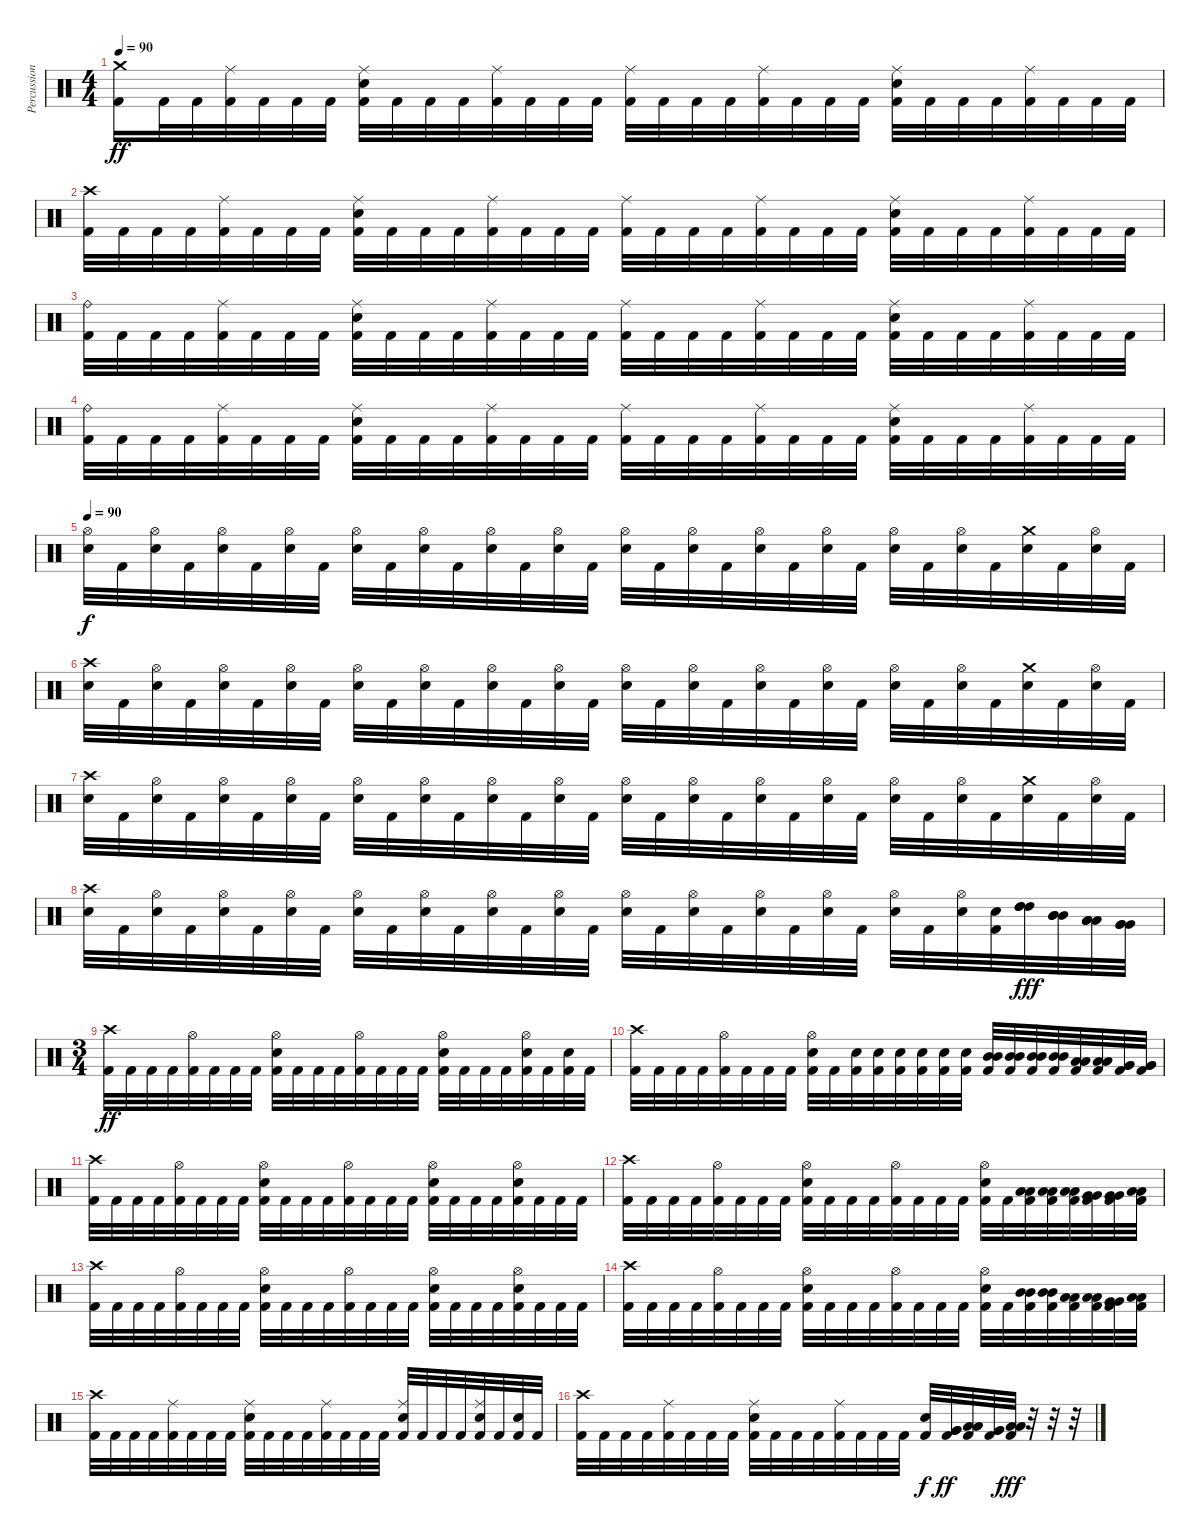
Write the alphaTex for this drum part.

\track ("Percussion" "Percussion") {instrument percussion}
\staff {score}
\articulation defaults
\ts (4 4)
\tempo 90
\clef neutral
\ks c
("Crash medium (hit)" "Kick (hit) 2").16{dy ff} "Kick (hit) 2".32 "Kick (hit) 2".32 ("Ride (middle)" "Kick (hit) 2").32 "Kick (hit) 2".32 "Kick (hit) 2".32 "Kick (hit) 2".32 ("Ride (middle)" "Electric Snare (hit)" "Kick (hit) 2").32 "Kick (hit) 2".32 "Kick (hit) 2".32 "Kick (hit) 2".32 ("Ride (middle)" "Kick (hit) 2").32 "Kick (hit) 2".32 "Kick (hit) 2".32 "Kick (hit) 2".32 ("Ride (middle)" "Kick (hit) 2").32 "Kick (hit) 2".32 "Kick (hit) 2".32 "Kick (hit) 2".32 ("Ride (middle)" "Kick (hit) 2").32 "Kick (hit) 2".32 "Kick (hit) 2".32 "Kick (hit) 2".32 ("Ride (middle)" "Electric Snare (hit)" "Kick (hit) 2").32 "Kick (hit) 2".32 "Kick (hit) 2".32 "Kick (hit) 2".32 ("Ride (middle)" "Kick (hit) 2").32 "Kick (hit) 2".32 "Kick (hit) 2".32 "Kick (hit) 2".32 |
("Crash high (hit)" "Kick (hit) 2").32 "Kick (hit) 2".32 "Kick (hit) 2".32 "Kick (hit) 2".32 ("Ride (middle)" "Kick (hit) 2").32 "Kick (hit) 2".32 "Kick (hit) 2".32 "Kick (hit) 2".32 ("Ride (middle)" "Electric Snare (hit)" "Kick (hit) 2").32 "Kick (hit) 2".32 "Kick (hit) 2".32 "Kick (hit) 2".32 ("Ride (middle)" "Kick (hit) 2").32 "Kick (hit) 2".32 "Kick (hit) 2".32 "Kick (hit) 2".32 ("Ride (middle)" "Kick (hit) 2").32 "Kick (hit) 2".32 "Kick (hit) 2".32 "Kick (hit) 2".32 ("Ride (middle)" "Kick (hit) 2").32 "Kick (hit) 2".32 "Kick (hit) 2".32 "Kick (hit) 2".32 ("Ride (middle)" "Electric Snare (hit)" "Kick (hit) 2").32 "Kick (hit) 2".32 "Kick (hit) 2".32 "Kick (hit) 2".32 ("Ride (middle)" "Kick (hit) 2").32 "Kick (hit) 2".32 "Kick (hit) 2".32 "Kick (hit) 2".32 |
("Ride (bell)" "Kick (hit) 2").32 "Kick (hit) 2".32 "Kick (hit) 2".32 "Kick (hit) 2".32 ("Ride (middle)" "Kick (hit) 2").32 "Kick (hit) 2".32 "Kick (hit) 2".32 "Kick (hit) 2".32 ("Ride (middle)" "Electric Snare (hit)" "Kick (hit) 2").32 "Kick (hit) 2".32 "Kick (hit) 2".32 "Kick (hit) 2".32 ("Ride (middle)" "Kick (hit) 2").32 "Kick (hit) 2".32 "Kick (hit) 2".32 "Kick (hit) 2".32 ("Ride (middle)" "Kick (hit) 2").32 "Kick (hit) 2".32 "Kick (hit) 2".32 "Kick (hit) 2".32 ("Ride (middle)" "Kick (hit) 2").32 "Kick (hit) 2".32 "Kick (hit) 2".32 "Kick (hit) 2".32 ("Ride (middle)" "Electric Snare (hit)" "Kick (hit) 2").32 "Kick (hit) 2".32 "Kick (hit) 2".32 "Kick (hit) 2".32 ("Ride (middle)" "Kick (hit) 2").32 "Kick (hit) 2".32 "Kick (hit) 2".32 "Kick (hit) 2".32 |
("Ride (bell)" "Kick (hit) 2").32 "Kick (hit) 2".32 "Kick (hit) 2".32 "Kick (hit) 2".32 ("Ride (middle)" "Kick (hit) 2").32 "Kick (hit) 2".32 "Kick (hit) 2".32 "Kick (hit) 2".32 ("Ride (middle)" "Electric Snare (hit)" "Kick (hit) 2").32 "Kick (hit) 2".32 "Kick (hit) 2".32 "Kick (hit) 2".32 ("Ride (middle)" "Kick (hit) 2").32 "Kick (hit) 2".32 "Kick (hit) 2".32 "Kick (hit) 2".32 ("Ride (middle)" "Kick (hit) 2").32 "Kick (hit) 2".32 "Kick (hit) 2".32 "Kick (hit) 2".32 ("Ride (middle)" "Kick (hit) 2").32 "Kick (hit) 2".32 "Kick (hit) 2".32 "Kick (hit) 2".32 ("Ride (middle)" "Electric Snare (hit)" "Kick (hit) 2").32 "Kick (hit) 2".32 "Kick (hit) 2".32 "Kick (hit) 2".32 ("Ride (middle)" "Kick (hit) 2").32 "Kick (hit) 2".32 "Kick (hit) 2".32 "Kick (hit) 2".32 |
\tempo 90
("Hi-Hat (open)" "Electric Snare (hit)").32{dy f} "Kick (hit) 2".32 ("Hi-Hat (open)" "Electric Snare (hit)").32 "Kick (hit) 2".32 ("Hi-Hat (open)" "Electric Snare (hit)").32 "Kick (hit) 2".32 ("Hi-Hat (open)" "Electric Snare (hit)").32 "Kick (hit) 2".32 ("Hi-Hat (open)" "Electric Snare (hit)").32 "Kick (hit) 2".32 ("Hi-Hat (open)" "Electric Snare (hit)").32 "Kick (hit) 2".32 ("Hi-Hat (open)" "Electric Snare (hit)").32 "Kick (hit) 2".32 ("Hi-Hat (open)" "Electric Snare (hit)").32 "Kick (hit) 2".32 ("Hi-Hat (open)" "Electric Snare (hit)").32 "Kick (hit) 2".32 ("Hi-Hat (open)" "Electric Snare (hit)").32 "Kick (hit) 2".32 ("Hi-Hat (open)" "Electric Snare (hit)").32 "Kick (hit) 2".32 ("Hi-Hat (open)" "Electric Snare (hit)").32 "Kick (hit) 2".32 ("Hi-Hat (open)" "Electric Snare (hit)").32 "Kick (hit) 2".32 ("Hi-Hat (open)" "Electric Snare (hit)").32 "Kick (hit) 2".32 ("Crash medium (hit)" "Electric Snare (hit)").32 "Kick (hit) 2".32 ("Hi-Hat (open)" "Electric Snare (hit)").32 "Kick (hit) 2".32 |
("Crash high (hit)" "Electric Snare (hit)").32 "Kick (hit) 2".32 ("Hi-Hat (open)" "Electric Snare (hit)").32 "Kick (hit) 2".32 ("Hi-Hat (open)" "Electric Snare (hit)").32 "Kick (hit) 2".32 ("Hi-Hat (open)" "Electric Snare (hit)").32 "Kick (hit) 2".32 ("Hi-Hat (open)" "Electric Snare (hit)").32 "Kick (hit) 2".32 ("Hi-Hat (open)" "Electric Snare (hit)").32 "Kick (hit) 2".32 ("Hi-Hat (open)" "Electric Snare (hit)").32 "Kick (hit) 2".32 ("Hi-Hat (open)" "Electric Snare (hit)").32 "Kick (hit) 2".32 ("Hi-Hat (open)" "Electric Snare (hit)").32 "Kick (hit) 2".32 ("Hi-Hat (open)" "Electric Snare (hit)").32 "Kick (hit) 2".32 ("Hi-Hat (open)" "Electric Snare (hit)").32 "Kick (hit) 2".32 ("Hi-Hat (open)" "Electric Snare (hit)").32 "Kick (hit) 2".32 ("Hi-Hat (open)" "Electric Snare (hit)").32 "Kick (hit) 2".32 ("Hi-Hat (open)" "Electric Snare (hit)").32 "Kick (hit) 2".32 ("Crash medium (hit)" "Electric Snare (hit)").32 "Kick (hit) 2".32 ("Hi-Hat (open)" "Electric Snare (hit)").32 "Kick (hit) 2".32 |
("Crash high (hit)" "Electric Snare (hit)").32 "Kick (hit) 2".32 ("Hi-Hat (open)" "Electric Snare (hit)").32 "Kick (hit) 2".32 ("Hi-Hat (open)" "Electric Snare (hit)").32 "Kick (hit) 2".32 ("Hi-Hat (open)" "Electric Snare (hit)").32 "Kick (hit) 2".32 ("Hi-Hat (open)" "Electric Snare (hit)").32 "Kick (hit) 2".32 ("Hi-Hat (open)" "Electric Snare (hit)").32 "Kick (hit) 2".32 ("Hi-Hat (open)" "Electric Snare (hit)").32 "Kick (hit) 2".32 ("Hi-Hat (open)" "Electric Snare (hit)").32 "Kick (hit) 2".32 ("Hi-Hat (open)" "Electric Snare (hit)").32 "Kick (hit) 2".32 ("Hi-Hat (open)" "Electric Snare (hit)").32 "Kick (hit) 2".32 ("Hi-Hat (open)" "Electric Snare (hit)").32 "Kick (hit) 2".32 ("Hi-Hat (open)" "Electric Snare (hit)").32 "Kick (hit) 2".32 ("Hi-Hat (open)" "Electric Snare (hit)").32 "Kick (hit) 2".32 ("Hi-Hat (open)" "Electric Snare (hit)").32 "Kick (hit) 2".32 ("Crash medium (hit)" "Electric Snare (hit)").32 "Kick (hit) 2".32 ("Hi-Hat (open)" "Electric Snare (hit)").32 "Kick (hit) 2".32 |
("Crash high (hit)" "Electric Snare (hit)").32 "Kick (hit) 2".32 ("Hi-Hat (open)" "Electric Snare (hit)").32 "Kick (hit) 2".32 ("Hi-Hat (open)" "Electric Snare (hit)").32 "Kick (hit) 2".32 ("Hi-Hat (open)" "Electric Snare (hit)").32 "Kick (hit) 2".32 ("Hi-Hat (open)" "Electric Snare (hit)").32 "Kick (hit) 2".32 ("Hi-Hat (open)" "Electric Snare (hit)").32 "Kick (hit) 2".32 ("Hi-Hat (open)" "Electric Snare (hit)").32 "Kick (hit) 2".32 ("Hi-Hat (open)" "Electric Snare (hit)").32 "Kick (hit) 2".32 ("Hi-Hat (open)" "Electric Snare (hit)").32 "Kick (hit) 2".32 ("Hi-Hat (open)" "Electric Snare (hit)").32 "Kick (hit) 2".32 ("Hi-Hat (open)" "Electric Snare (hit)").32 "Kick (hit) 2".32 ("Hi-Hat (open)" "Electric Snare (hit)").32 "Kick (hit) 2".32 ("Hi-Hat (open)" "Electric Snare (hit)").32 "Kick (hit) 2".32 ("Hi-Hat (open)" "Electric Snare (hit)").32 ("Electric Snare (hit)" "Kick (hit) 2").32 ("High Tom (hit)" "High Tom (hit)" "High Tom (hit)").32{dy fff} ("Mid Tom (hit)" "Mid Tom (hit)" "Mid Tom (hit)").32 ("Low Tom (hit)" "Low Tom (hit)" "Low Tom (hit)").32 ("Very Low Tom (hit)" "Very Low Tom (hit)" "Very Low Tom (hit)").32 |
\ts (3 4)
("Crash high (hit)" "Kick (hit) 2").32{dy ff} "Kick (hit) 2".32 "Kick (hit) 2".32 "Kick (hit) 2".32 ("Hi-Hat (open)" "Kick (hit) 2").32 "Kick (hit) 2".32 "Kick (hit) 2".32 "Kick (hit) 2".32 ("Hi-Hat (open)" "Electric Snare (hit)" "Kick (hit) 2").32 "Kick (hit) 2".32 "Kick (hit) 2".32 "Kick (hit) 2".32 ("Hi-Hat (open)" "Kick (hit) 2").32 "Kick (hit) 2".32 "Kick (hit) 2".32 "Kick (hit) 2".32 ("Hi-Hat (open)" "Electric Snare (hit)" "Kick (hit) 2").32 "Kick (hit) 2".32 "Kick (hit) 2".32 "Kick (hit) 2".32 ("Hi-Hat (open)" "Electric Snare (hit)" "Kick (hit) 2").32 "Kick (hit) 2".32 ("Electric Snare (hit)" "Kick (hit) 2").32 "Kick (hit) 2".32 |
("Crash high (hit)" "Kick (hit) 2").32 "Kick (hit) 2".32 "Kick (hit) 2".32 "Kick (hit) 2".32 ("Hi-Hat (open)" "Kick (hit) 2").32 "Kick (hit) 2".32 "Kick (hit) 2".32 "Kick (hit) 2".32 ("Hi-Hat (open)" "Electric Snare (hit)" "Kick (hit) 2").32 "Kick (hit) 2".32 ("Electric Snare (hit)" "Kick (hit) 2").32 ("Electric Snare (hit)" "Kick (hit) 2").32 ("Electric Snare (hit)" "Kick (hit) 2").32 ("Electric Snare (hit)" "Kick (hit) 2").32 ("Electric Snare (hit)" "Kick (hit) 2").32 ("Electric Snare (hit)" "Kick (hit) 2").32 ("Mid Tom (hit)" "Mid Tom (hit)" "Kick (hit) 2").32 ("Mid Tom (hit)" "Mid Tom (hit)" "Kick (hit) 2").32 ("Mid Tom (hit)" "Mid Tom (hit)" "Kick (hit) 2").32 ("Mid Tom (hit)" "Mid Tom (hit)" "Kick (hit) 2").32 ("Low Tom (hit)" "Low Tom (hit)" "Kick (hit) 2").32 ("Low Tom (hit)" "Low Tom (hit)" "Kick (hit) 2").32 ("Very Low Tom (hit)" "Very Low Tom (hit)" "Kick (hit) 2").32 ("Very Low Tom (hit)" "Very Low Tom (hit)" "Kick (hit) 2").32 |
("Crash high (hit)" "Kick (hit) 2").32 "Kick (hit) 2".32 "Kick (hit) 2".32 "Kick (hit) 2".32 ("Hi-Hat (open)" "Kick (hit) 2").32 "Kick (hit) 2".32 "Kick (hit) 2".32 "Kick (hit) 2".32 ("Hi-Hat (open)" "Electric Snare (hit)" "Kick (hit) 2").32 "Kick (hit) 2".32 "Kick (hit) 2".32 "Kick (hit) 2".32 ("Hi-Hat (open)" "Kick (hit) 2").32 "Kick (hit) 2".32 "Kick (hit) 2".32 "Kick (hit) 2".32 ("Hi-Hat (open)" "Electric Snare (hit)" "Kick (hit) 2").32 "Kick (hit) 2".32 "Kick (hit) 2".32 "Kick (hit) 2".32 ("Hi-Hat (open)" "Electric Snare (hit)" "Kick (hit) 2").32 "Kick (hit) 2".32 "Kick (hit) 2".32 "Kick (hit) 2".32 |
("Crash high (hit)" "Kick (hit) 2").32 "Kick (hit) 2".32 "Kick (hit) 2".32 "Kick (hit) 2".32 ("Hi-Hat (open)" "Kick (hit) 2").32 "Kick (hit) 2".32 "Kick (hit) 2".32 "Kick (hit) 2".32 ("Hi-Hat (open)" "Electric Snare (hit)" "Kick (hit) 2").32 "Kick (hit) 2".32 "Kick (hit) 2".32 "Kick (hit) 2".32 ("Hi-Hat (open)" "Kick (hit) 2").32 "Kick (hit) 2".32 "Kick (hit) 2".32 "Kick (hit) 2".32 ("Hi-Hat (open)" "Electric Snare (hit)" "Kick (hit) 2").32 "Kick (hit) 2".32 ("Low Tom (hit)" "Low Tom (hit)" "Kick (hit) 2").32 ("Low Tom (hit)" "Low Tom (hit)" "Kick (hit) 2").32 ("Low Tom (hit)" "Low Tom (hit)" "Kick (hit) 2").32 ("Very Low Tom (hit)" "Very Low Tom (hit)" "Kick (hit) 2").32 ("Very Low Tom (hit)" "Very Low Tom (hit)" "Kick (hit) 2").32 ("Low Floor Tom (hit)" "Low Floor Tom (hit)" "Kick (hit) 2").32 |
("Crash high (hit)" "Kick (hit) 2").32 "Kick (hit) 2".32 "Kick (hit) 2".32 "Kick (hit) 2".32 ("Hi-Hat (open)" "Kick (hit) 2").32 "Kick (hit) 2".32 "Kick (hit) 2".32 "Kick (hit) 2".32 ("Hi-Hat (open)" "Electric Snare (hit)" "Kick (hit) 2").32 "Kick (hit) 2".32 "Kick (hit) 2".32 "Kick (hit) 2".32 ("Hi-Hat (open)" "Kick (hit) 2").32 "Kick (hit) 2".32 "Kick (hit) 2".32 "Kick (hit) 2".32 ("Hi-Hat (open)" "Electric Snare (hit)" "Kick (hit) 2").32 "Kick (hit) 2".32 "Kick (hit) 2".32 "Kick (hit) 2".32 ("Hi-Hat (open)" "Electric Snare (hit)" "Kick (hit) 2").32 "Kick (hit) 2".32 "Kick (hit) 2".32 "Kick (hit) 2".32 |
("Crash high (hit)" "Kick (hit) 2").32 "Kick (hit) 2".32 "Kick (hit) 2".32 "Kick (hit) 2".32 ("Hi-Hat (open)" "Kick (hit) 2").32 "Kick (hit) 2".32 "Kick (hit) 2".32 "Kick (hit) 2".32 ("Hi-Hat (open)" "Electric Snare (hit)" "Kick (hit) 2").32 "Kick (hit) 2".32 "Kick (hit) 2".32 "Kick (hit) 2".32 ("Hi-Hat (open)" "Kick (hit) 2").32 "Kick (hit) 2".32 "Kick (hit) 2".32 "Kick (hit) 2".32 ("Hi-Hat (open)" "Electric Snare (hit)" "Kick (hit) 2").32 "Kick (hit) 2".32 ("Mid Tom (hit)" "Mid Tom (hit)" "Kick (hit) 2").32 ("Mid Tom (hit)" "Mid Tom (hit)" "Kick (hit) 2").32 ("Low Tom (hit)" "Low Tom (hit)" "Kick (hit) 2").32 ("Low Tom (hit)" "Low Tom (hit)" "Kick (hit) 2").32 ("Very Low Tom (hit)" "Very Low Tom (hit)" "Kick (hit) 2").32 ("Low Floor Tom (hit)" "Low Floor Tom (hit)" "Kick (hit) 2").32 |
("Crash high (hit)" "Kick (hit) 2").32 "Kick (hit) 2".32 "Kick (hit) 2".32 "Kick (hit) 2".32 ("Ride (middle)" "Kick (hit) 2").32 "Kick (hit) 2".32 "Kick (hit) 2".32 "Kick (hit) 2".32 ("Ride (middle)" "Electric Snare (hit)" "Kick (hit) 2").32 "Kick (hit) 2".32 "Kick (hit) 2".32 "Kick (hit) 2".32 ("Ride (middle)" "Kick (hit) 2").32 "Kick (hit) 2".32 "Kick (hit) 2".32 "Kick (hit) 2".32 ("Ride (middle)" "Electric Snare (hit)" "Kick (hit) 2").32 "Kick (hit) 2".32 "Kick (hit) 2".32 "Kick (hit) 2".32 ("Ride (middle)" "Electric Snare (hit)" "Kick (hit) 2").32 "Kick (hit) 2".32 ("Electric Snare (hit)" "Kick (hit) 2").32 "Kick (hit) 2".32 |
("Crash high (hit)" "Kick (hit) 2").32 "Kick (hit) 2".32 "Kick (hit) 2".32 "Kick (hit) 2".32 ("Ride (middle)" "Kick (hit) 2").32 "Kick (hit) 2".32 "Kick (hit) 2".32 "Kick (hit) 2".32 ("Ride (middle)" "Electric Snare (hit)" "Kick (hit) 2").32 "Kick (hit) 2".32 "Kick (hit) 2".32 "Kick (hit) 2".32 ("Ride (middle)" "Kick (hit) 2").32 "Kick (hit) 2".32 "Kick (hit) 2".32 "Kick (hit) 2".32 ("Electric Snare (hit)" "Kick (hit) 2").32{dy f} ("Very Low Tom (hit)" "Very Low Tom (hit)" "Kick (hit) 2").32{dy ff} ("Low Floor Tom (hit)" "Low Floor Tom (hit)" "Kick (hit) 2").32 ("Very Low Tom (hit)" "Very Low Tom (hit)" "Kick (hit) 2").32 ("Low Tom (hit)" "Low Tom (hit)" "Kick (hit) 2").32{dy fff} r.32 r.32 r.32
